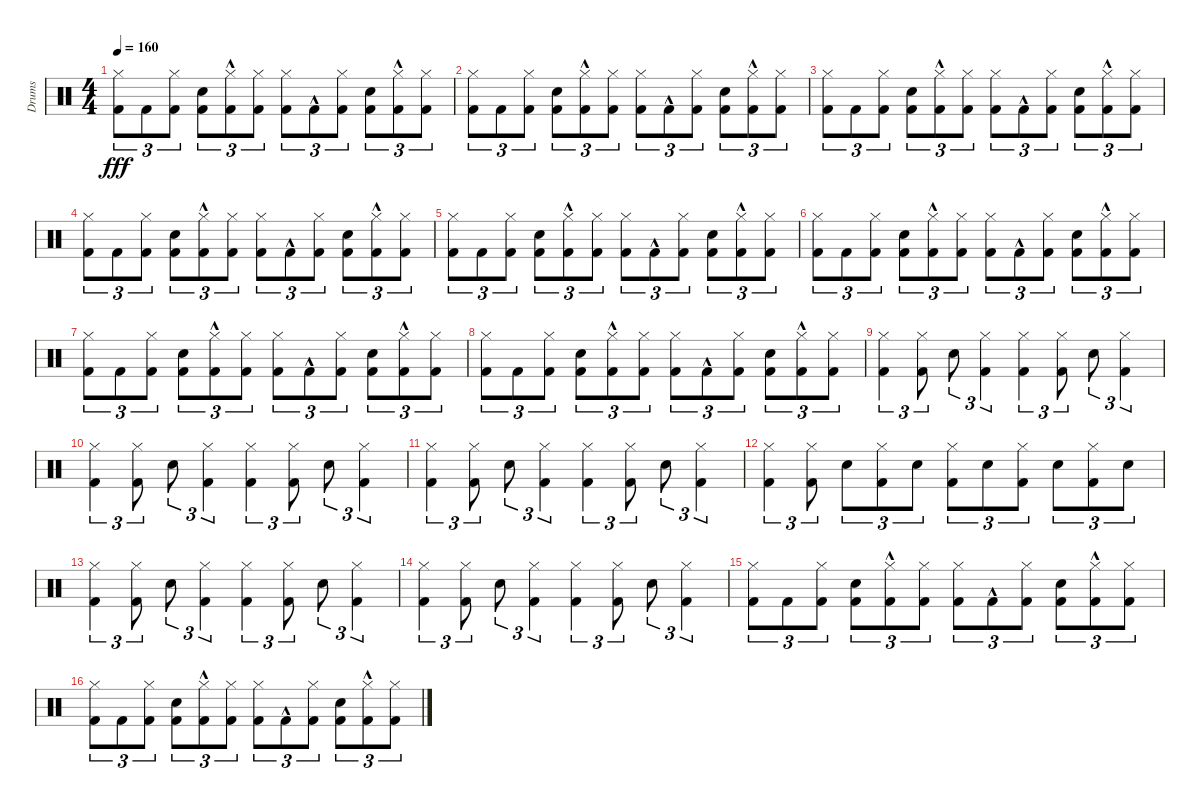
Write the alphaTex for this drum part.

\track ("Drums" "Drums") {instrument percussion}
\staff {score}
\articulation defaults
\ts (4 4)
\tempo 160
\clef neutral
\ks c
("Kick (hit) 2" "Hi-Hat (closed)").8{tu (3 2) dy fff} "Kick (hit) 2".8{tu (3 2)} ("Kick (hit) 2" "Hi-Hat (closed)").8{tu (3 2)} ("Kick (hit) 2" "Snare (hit) 2").8{tu (3 2)} ("Kick (hit) 2"{hac} "Hi-Hat (closed)"{hac}).8{tu (3 2)} ("Kick (hit) 2" "Hi-Hat (closed)").8{tu (3 2)} ("Kick (hit) 2" "Hi-Hat (closed)").8{tu (3 2)} "Kick (hit) 2"{hac}.8{tu (3 2)} ("Kick (hit) 2" "Hi-Hat (closed)").8{tu (3 2)} ("Kick (hit) 2" "Snare (hit) 2").8{tu (3 2)} ("Kick (hit) 2"{hac} "Hi-Hat (closed)"{hac}).8{tu (3 2)} ("Kick (hit) 2" "Hi-Hat (closed)").8{tu (3 2)} |
("Kick (hit) 2" "Hi-Hat (closed)").8{tu (3 2)} "Kick (hit) 2".8{tu (3 2)} ("Kick (hit) 2" "Hi-Hat (closed)").8{tu (3 2)} ("Kick (hit) 2" "Snare (hit) 2").8{tu (3 2)} ("Kick (hit) 2"{hac} "Hi-Hat (closed)"{hac}).8{tu (3 2)} ("Kick (hit) 2" "Hi-Hat (closed)").8{tu (3 2)} ("Kick (hit) 2" "Hi-Hat (closed)").8{tu (3 2)} "Kick (hit) 2"{hac}.8{tu (3 2)} ("Kick (hit) 2" "Hi-Hat (closed)").8{tu (3 2)} ("Kick (hit) 2" "Snare (hit) 2").8{tu (3 2)} ("Kick (hit) 2"{hac} "Hi-Hat (closed)"{hac}).8{tu (3 2)} ("Kick (hit) 2" "Hi-Hat (closed)").8{tu (3 2)} |
("Kick (hit) 2" "Hi-Hat (closed)").8{tu (3 2)} "Kick (hit) 2".8{tu (3 2)} ("Kick (hit) 2" "Hi-Hat (closed)").8{tu (3 2)} ("Kick (hit) 2" "Snare (hit) 2").8{tu (3 2)} ("Kick (hit) 2"{hac} "Hi-Hat (closed)"{hac}).8{tu (3 2)} ("Kick (hit) 2" "Hi-Hat (closed)").8{tu (3 2)} ("Kick (hit) 2" "Hi-Hat (closed)").8{tu (3 2)} "Kick (hit) 2"{hac}.8{tu (3 2)} ("Kick (hit) 2" "Hi-Hat (closed)").8{tu (3 2)} ("Kick (hit) 2" "Snare (hit) 2").8{tu (3 2)} ("Kick (hit) 2"{hac} "Hi-Hat (closed)"{hac}).8{tu (3 2)} ("Kick (hit) 2" "Hi-Hat (closed)").8{tu (3 2)} |
("Kick (hit) 2" "Hi-Hat (closed)").8{tu (3 2)} "Kick (hit) 2".8{tu (3 2)} ("Kick (hit) 2" "Hi-Hat (closed)").8{tu (3 2)} ("Kick (hit) 2" "Snare (hit) 2").8{tu (3 2)} ("Kick (hit) 2"{hac} "Hi-Hat (closed)"{hac}).8{tu (3 2)} ("Kick (hit) 2" "Hi-Hat (closed)").8{tu (3 2)} ("Kick (hit) 2" "Hi-Hat (closed)").8{tu (3 2)} "Kick (hit) 2"{hac}.8{tu (3 2)} ("Kick (hit) 2" "Hi-Hat (closed)").8{tu (3 2)} ("Kick (hit) 2" "Snare (hit) 2").8{tu (3 2)} ("Kick (hit) 2"{hac} "Hi-Hat (closed)"{hac}).8{tu (3 2)} ("Kick (hit) 2" "Hi-Hat (closed)").8{tu (3 2)} |
("Kick (hit) 2" "Hi-Hat (closed)").8{tu (3 2)} "Kick (hit) 2".8{tu (3 2)} ("Kick (hit) 2" "Hi-Hat (closed)").8{tu (3 2)} ("Kick (hit) 2" "Snare (hit) 2").8{tu (3 2)} ("Kick (hit) 2"{hac} "Hi-Hat (closed)"{hac}).8{tu (3 2)} ("Kick (hit) 2" "Hi-Hat (closed)").8{tu (3 2)} ("Kick (hit) 2" "Hi-Hat (closed)").8{tu (3 2)} "Kick (hit) 2"{hac}.8{tu (3 2)} ("Kick (hit) 2" "Hi-Hat (closed)").8{tu (3 2)} ("Kick (hit) 2" "Snare (hit) 2").8{tu (3 2)} ("Kick (hit) 2"{hac} "Hi-Hat (closed)"{hac}).8{tu (3 2)} ("Kick (hit) 2" "Hi-Hat (closed)").8{tu (3 2)} |
("Kick (hit) 2" "Hi-Hat (closed)").8{tu (3 2)} "Kick (hit) 2".8{tu (3 2)} ("Kick (hit) 2" "Hi-Hat (closed)").8{tu (3 2)} ("Kick (hit) 2" "Snare (hit) 2").8{tu (3 2)} ("Kick (hit) 2"{hac} "Hi-Hat (closed)"{hac}).8{tu (3 2)} ("Kick (hit) 2" "Hi-Hat (closed)").8{tu (3 2)} ("Kick (hit) 2" "Hi-Hat (closed)").8{tu (3 2)} "Kick (hit) 2"{hac}.8{tu (3 2)} ("Kick (hit) 2" "Hi-Hat (closed)").8{tu (3 2)} ("Kick (hit) 2" "Snare (hit) 2").8{tu (3 2)} ("Kick (hit) 2"{hac} "Hi-Hat (closed)"{hac}).8{tu (3 2)} ("Kick (hit) 2" "Hi-Hat (closed)").8{tu (3 2)} |
("Kick (hit) 2" "Hi-Hat (closed)").8{tu (3 2)} "Kick (hit) 2".8{tu (3 2)} ("Kick (hit) 2" "Hi-Hat (closed)").8{tu (3 2)} ("Kick (hit) 2" "Snare (hit) 2").8{tu (3 2)} ("Kick (hit) 2"{hac} "Hi-Hat (closed)"{hac}).8{tu (3 2)} ("Kick (hit) 2" "Hi-Hat (closed)").8{tu (3 2)} ("Kick (hit) 2" "Hi-Hat (closed)").8{tu (3 2)} "Kick (hit) 2"{hac}.8{tu (3 2)} ("Kick (hit) 2" "Hi-Hat (closed)").8{tu (3 2)} ("Kick (hit) 2" "Snare (hit) 2").8{tu (3 2)} ("Kick (hit) 2"{hac} "Hi-Hat (closed)"{hac}).8{tu (3 2)} ("Kick (hit) 2" "Hi-Hat (closed)").8{tu (3 2)} |
("Kick (hit) 2" "Hi-Hat (closed)").8{tu (3 2)} "Kick (hit) 2".8{tu (3 2)} ("Kick (hit) 2" "Hi-Hat (closed)").8{tu (3 2)} ("Kick (hit) 2" "Snare (hit) 2").8{tu (3 2)} ("Kick (hit) 2"{hac} "Hi-Hat (closed)"{hac}).8{tu (3 2)} ("Kick (hit) 2" "Hi-Hat (closed)").8{tu (3 2)} ("Kick (hit) 2" "Hi-Hat (closed)").8{tu (3 2)} "Kick (hit) 2"{hac}.8{tu (3 2)} ("Kick (hit) 2" "Hi-Hat (closed)").8{tu (3 2)} ("Kick (hit) 2" "Snare (hit) 2").8{tu (3 2)} ("Kick (hit) 2"{hac} "Hi-Hat (closed)"{hac}).8{tu (3 2)} ("Kick (hit) 2" "Hi-Hat (closed)").8{tu (3 2)} |
("Hi-Hat (closed)" "Kick (hit) 2").4{tu (3 2)} ("Hi-Hat (closed)" "Kick (hit) 2").8{tu (3 2)} "Snare (hit) 2".8{tu (3 2)} ("Hi-Hat (closed)" "Kick (hit) 2").4{tu (3 2)} ("Hi-Hat (closed)" "Kick (hit) 2").4{tu (3 2)} ("Hi-Hat (closed)" "Kick (hit) 2").8{tu (3 2)} "Snare (hit) 2".8{tu (3 2)} ("Hi-Hat (closed)" "Kick (hit) 2").4{tu (3 2)} |
("Hi-Hat (closed)" "Kick (hit) 2").4{tu (3 2)} ("Hi-Hat (closed)" "Kick (hit) 2").8{tu (3 2)} "Snare (hit) 2".8{tu (3 2)} ("Hi-Hat (closed)" "Kick (hit) 2").4{tu (3 2)} ("Hi-Hat (closed)" "Kick (hit) 2").4{tu (3 2)} ("Hi-Hat (closed)" "Kick (hit) 2").8{tu (3 2)} "Snare (hit) 2".8{tu (3 2)} ("Hi-Hat (closed)" "Kick (hit) 2").4{tu (3 2)} |
("Hi-Hat (closed)" "Kick (hit) 2").4{tu (3 2)} ("Hi-Hat (closed)" "Kick (hit) 2").8{tu (3 2)} "Snare (hit) 2".8{tu (3 2)} ("Hi-Hat (closed)" "Kick (hit) 2").4{tu (3 2)} ("Hi-Hat (closed)" "Kick (hit) 2").4{tu (3 2)} ("Hi-Hat (closed)" "Kick (hit) 2").8{tu (3 2)} "Snare (hit) 2".8{tu (3 2)} ("Hi-Hat (closed)" "Kick (hit) 2").4{tu (3 2)} |
("Kick (hit) 2" "Hi-Hat (closed)").4{tu (3 2)} ("Kick (hit) 2" "Hi-Hat (closed)").8{tu (3 2)} "Snare (hit) 2".8{tu (3 2)} ("Kick (hit) 2" "Hi-Hat (closed)").8{tu (3 2)} "Snare (hit) 2".8{tu (3 2)} ("Kick (hit) 2" "Hi-Hat (closed)").8{tu (3 2)} "Snare (hit) 2".8{tu (3 2)} ("Kick (hit) 2" "Hi-Hat (closed)").8{tu (3 2)} "Snare (hit) 2".8{tu (3 2)} ("Kick (hit) 2" "Hi-Hat (closed)").8{tu (3 2)} "Snare (hit) 2".8{tu (3 2)} |
("Hi-Hat (closed)" "Kick (hit) 2").4{tu (3 2)} ("Hi-Hat (closed)" "Kick (hit) 2").8{tu (3 2)} "Snare (hit) 2".8{tu (3 2)} ("Hi-Hat (closed)" "Kick (hit) 2").4{tu (3 2)} ("Hi-Hat (closed)" "Kick (hit) 2").4{tu (3 2)} ("Hi-Hat (closed)" "Kick (hit) 2").8{tu (3 2)} "Snare (hit) 2".8{tu (3 2)} ("Hi-Hat (closed)" "Kick (hit) 2").4{tu (3 2)} |
("Hi-Hat (closed)" "Kick (hit) 2").4{tu (3 2)} ("Hi-Hat (closed)" "Kick (hit) 2").8{tu (3 2)} "Snare (hit) 2".8{tu (3 2)} ("Hi-Hat (closed)" "Kick (hit) 2").4{tu (3 2)} ("Hi-Hat (closed)" "Kick (hit) 2").4{tu (3 2)} ("Hi-Hat (closed)" "Kick (hit) 2").8{tu (3 2)} "Snare (hit) 2".8{tu (3 2)} ("Hi-Hat (closed)" "Kick (hit) 2").4{tu (3 2)} |
("Kick (hit) 2" "Hi-Hat (closed)").8{tu (3 2)} "Kick (hit) 2".8{tu (3 2)} ("Kick (hit) 2" "Hi-Hat (closed)").8{tu (3 2)} ("Kick (hit) 2" "Snare (hit) 2").8{tu (3 2)} ("Kick (hit) 2"{hac} "Hi-Hat (closed)"{hac}).8{tu (3 2)} ("Kick (hit) 2" "Hi-Hat (closed)").8{tu (3 2)} ("Kick (hit) 2" "Hi-Hat (closed)").8{tu (3 2)} "Kick (hit) 2"{hac}.8{tu (3 2)} ("Kick (hit) 2" "Hi-Hat (closed)").8{tu (3 2)} ("Kick (hit) 2" "Snare (hit) 2").8{tu (3 2)} ("Kick (hit) 2"{hac} "Hi-Hat (closed)"{hac}).8{tu (3 2)} ("Kick (hit) 2" "Hi-Hat (closed)").8{tu (3 2)} |
("Kick (hit) 2" "Hi-Hat (closed)").8{tu (3 2)} "Kick (hit) 2".8{tu (3 2)} ("Kick (hit) 2" "Hi-Hat (closed)").8{tu (3 2)} ("Kick (hit) 2" "Snare (hit) 2").8{tu (3 2)} ("Kick (hit) 2"{hac} "Hi-Hat (closed)"{hac}).8{tu (3 2)} ("Kick (hit) 2" "Hi-Hat (closed)").8{tu (3 2)} ("Kick (hit) 2" "Hi-Hat (closed)").8{tu (3 2)} "Kick (hit) 2"{hac}.8{tu (3 2)} ("Kick (hit) 2" "Hi-Hat (closed)").8{tu (3 2)} ("Kick (hit) 2" "Snare (hit) 2").8{tu (3 2)} ("Kick (hit) 2"{hac} "Hi-Hat (closed)"{hac}).8{tu (3 2)} ("Kick (hit) 2" "Hi-Hat (closed)").8{tu (3 2)}
